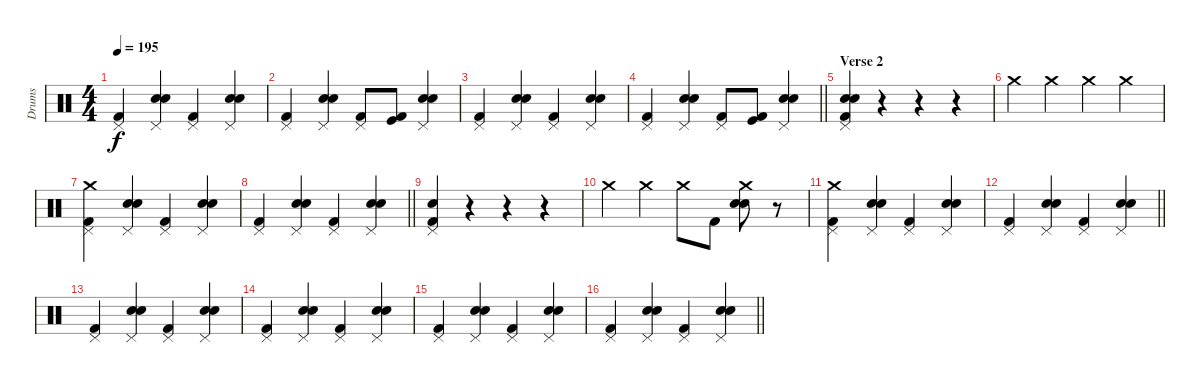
\track ("Drums" "Drums") {instrument percussion}
\staff {score}
\articulation defaults
\ts (4 4)
\tempo 195
\clef neutral
\ks c
("Kick (hit) 2" "Pedal Hi-Hat (hit)").4{dy f} ("Snare (hit) 2" "Electric Snare (hit)" "Pedal Hi-Hat (hit)").4 ("Kick (hit) 2" "Pedal Hi-Hat (hit)").4 ("Snare (hit) 2" "Electric Snare (hit)" "Pedal Hi-Hat (hit)").4 |
("Kick (hit) 2" "Pedal Hi-Hat (hit)").4 ("Snare (hit) 2" "Electric Snare (hit)" "Pedal Hi-Hat (hit)").4 ("Kick (hit) 2" "Pedal Hi-Hat (hit)").8 ("Kick (hit) 2" "Kick (hit)").8 ("Snare (hit) 2" "Electric Snare (hit)" "Pedal Hi-Hat (hit)").4 |
("Kick (hit) 2" "Pedal Hi-Hat (hit)").4 ("Snare (hit) 2" "Electric Snare (hit)" "Pedal Hi-Hat (hit)").4 ("Kick (hit) 2" "Pedal Hi-Hat (hit)").4 ("Snare (hit) 2" "Electric Snare (hit)" "Pedal Hi-Hat (hit)").4 |
\barLineRight lightlight
("Kick (hit) 2" "Pedal Hi-Hat (hit)").4 ("Snare (hit) 2" "Electric Snare (hit)" "Pedal Hi-Hat (hit)").4 ("Kick (hit) 2" "Pedal Hi-Hat (hit)").8 ("Kick (hit) 2" "Kick (hit)").8 ("Snare (hit) 2" "Electric Snare (hit)" "Pedal Hi-Hat (hit)").4 |
\section ("" "Verse 2")
("Kick (hit) 2" "Electric Snare (hit)" "Snare (hit) 2" "Pedal Hi-Hat (hit)").4 r.4 r.4 r.4 |
"Crash medium (hit)".4 "Crash medium (hit)".4 "Crash medium (hit)".4 "Crash medium (hit)".4 |
("Kick (hit) 2" "Pedal Hi-Hat (hit)" "Crash medium (hit)").4 ("Snare (hit) 2" "Electric Snare (hit)" "Pedal Hi-Hat (hit)").4 ("Kick (hit) 2" "Pedal Hi-Hat (hit)").4 ("Snare (hit) 2" "Electric Snare (hit)" "Pedal Hi-Hat (hit)").4 |
\barLineRight lightlight
("Kick (hit) 2" "Pedal Hi-Hat (hit)").4 ("Snare (hit) 2" "Electric Snare (hit)" "Pedal Hi-Hat (hit)").4 ("Kick (hit) 2" "Pedal Hi-Hat (hit)").4 ("Snare (hit) 2" "Electric Snare (hit)" "Pedal Hi-Hat (hit)").4 |
("Kick (hit) 2" "Electric Snare (hit)" "Pedal Hi-Hat (hit)").4 r.4 r.4 r.4 |
"Crash medium (hit)".4 "Crash medium (hit)".4 "Crash medium (hit)".8 "Kick (hit) 2".8 ("Crash medium (hit)" "Electric Snare (hit)" "Snare (hit) 2").8 r.8 |
("Kick (hit) 2" "Pedal Hi-Hat (hit)" "Crash medium (hit)").4 ("Snare (hit) 2" "Electric Snare (hit)" "Pedal Hi-Hat (hit)").4 ("Kick (hit) 2" "Pedal Hi-Hat (hit)").4 ("Snare (hit) 2" "Electric Snare (hit)" "Pedal Hi-Hat (hit)").4 |
\barLineRight lightlight
("Kick (hit) 2" "Pedal Hi-Hat (hit)").4 ("Snare (hit) 2" "Electric Snare (hit)" "Pedal Hi-Hat (hit)").4 ("Kick (hit) 2" "Pedal Hi-Hat (hit)").4 ("Snare (hit) 2" "Electric Snare (hit)" "Pedal Hi-Hat (hit)").4 |
("Kick (hit) 2" "Pedal Hi-Hat (hit)").4 ("Snare (hit) 2" "Electric Snare (hit)" "Pedal Hi-Hat (hit)").4 ("Kick (hit) 2" "Pedal Hi-Hat (hit)").4 ("Snare (hit) 2" "Electric Snare (hit)" "Pedal Hi-Hat (hit)").4 |
("Kick (hit) 2" "Pedal Hi-Hat (hit)").4 ("Snare (hit) 2" "Electric Snare (hit)" "Pedal Hi-Hat (hit)").4 ("Kick (hit) 2" "Pedal Hi-Hat (hit)").4 ("Snare (hit) 2" "Electric Snare (hit)" "Pedal Hi-Hat (hit)").4 |
("Kick (hit) 2" "Pedal Hi-Hat (hit)").4 ("Snare (hit) 2" "Electric Snare (hit)" "Pedal Hi-Hat (hit)").4 ("Kick (hit) 2" "Pedal Hi-Hat (hit)").4 ("Snare (hit) 2" "Electric Snare (hit)" "Pedal Hi-Hat (hit)").4 |
\barLineRight lightlight
("Kick (hit) 2" "Pedal Hi-Hat (hit)").4 ("Snare (hit) 2" "Electric Snare (hit)" "Pedal Hi-Hat (hit)").4 ("Kick (hit) 2" "Pedal Hi-Hat (hit)").4 ("Snare (hit) 2" "Electric Snare (hit)" "Pedal Hi-Hat (hit)").4
